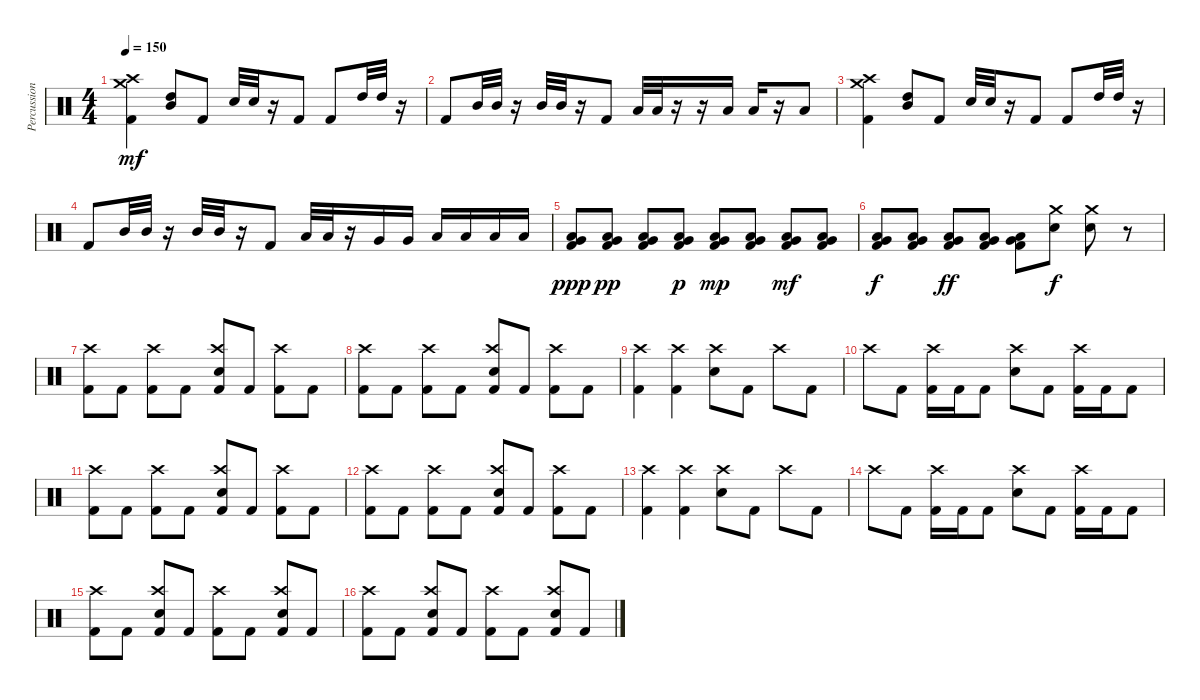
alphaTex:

\track ("Percussion" "Percussion") {instrument percussion}
\staff {score}
\articulation defaults
\ts (4 4)
\tempo 150
\clef neutral
\ks c
("Kick (hit) 2" "Crash high (hit)" "Crash medium (hit)").4{dy mf} ("High Tom (hit)" "Mid Tom (hit)").8 "Kick (hit) 2".8 "Snare (hit) 2".32 "Snare (hit) 2".32 r.16 "Kick (hit) 2".8 "Kick (hit) 2".8 "High Tom (hit)".32 "High Tom (hit)".32 r.16 |
"Kick (hit) 2".8 "Mid Tom (hit)".32 "Mid Tom (hit)".32 r.16 "Mid Tom (hit)".32 "Mid Tom (hit)".32 r.16 "Kick (hit) 2".8 "Low Tom (hit)".32 "Low Tom (hit)".32 r.16 r.16 "Low Floor Tom (hit)".16 "Low Floor Tom (hit)".16 r.16 "Low Floor Tom (hit)".8 |
("Kick (hit) 2" "Crash high (hit)" "Crash medium (hit)").4 ("High Tom (hit)" "Mid Tom (hit)").8 "Kick (hit) 2".8 "Snare (hit) 2".32 "Snare (hit) 2".32 r.16 "Kick (hit) 2".8 "Kick (hit) 2".8 "High Tom (hit)".32 "High Tom (hit)".32 r.16 |
"Kick (hit) 2".8 "Mid Tom (hit)".32 "Mid Tom (hit)".32 r.16 "Mid Tom (hit)".32 "Mid Tom (hit)".32 r.16 "Kick (hit) 2".8 "Low Tom (hit)".32 "Low Tom (hit)".32 r.16 "Very Low Tom (hit)".16 "Very Low Tom (hit)".16 "Low Floor Tom (hit)".16 "Low Floor Tom (hit)".16 "Low Floor Tom (hit)".16 "Low Floor Tom (hit)".16 |
("Low Floor Tom (hit)" "Very Low Tom (hit)" "Kick (hit) 2").8{dy ppp} ("Low Floor Tom (hit)" "Very Low Tom (hit)" "Kick (hit) 2").8{dy pp} ("Low Floor Tom (hit)" "Very Low Tom (hit)" "Kick (hit) 2").8 ("Low Floor Tom (hit)" "Very Low Tom (hit)" "Kick (hit) 2").8{dy p} ("Low Floor Tom (hit)" "Very Low Tom (hit)" "Kick (hit) 2").8{dy mp} ("Low Floor Tom (hit)" "Very Low Tom (hit)" "Kick (hit) 2").8 ("Low Floor Tom (hit)" "Very Low Tom (hit)" "Kick (hit) 2").8{dy mf} ("Low Floor Tom (hit)" "Very Low Tom (hit)" "Kick (hit) 2").8 |
("Low Floor Tom (hit)" "Very Low Tom (hit)" "Kick (hit) 2").8{dy f} ("Low Floor Tom (hit)" "Very Low Tom (hit)" "Kick (hit) 2").8 ("Low Floor Tom (hit)" "Very Low Tom (hit)" "Kick (hit) 2").8{dy ff} ("Kick (hit) 2" "Low Floor Tom (hit)" "Very Low Tom (hit)").8 ("Kick (hit) 2" "Low Floor Tom (hit)" "Very Low Tom (hit)").8 ("Snare (hit) 2" "Crash medium (hit)").8{dy f} ("Snare (hit) 2" "Crash medium (hit)").8 r.8 |
("Kick (hit) 2" "Crash high (hit)").8 "Kick (hit) 2".8 ("Kick (hit) 2" "Crash high (hit)").8 "Kick (hit) 2".8 ("Kick (hit) 2" "Crash high (hit)" "Snare (hit) 2").8 "Kick (hit) 2".8 ("Kick (hit) 2" "Crash high (hit)").8 "Kick (hit) 2".8 |
("Kick (hit) 2" "Crash high (hit)").8 "Kick (hit) 2".8 ("Kick (hit) 2" "Crash high (hit)").8 "Kick (hit) 2".8 ("Kick (hit) 2" "Crash high (hit)" "Snare (hit) 2").8 "Kick (hit) 2".8 ("Kick (hit) 2" "Crash high (hit)").8 "Kick (hit) 2".8 |
("Crash high (hit)" "Kick (hit) 2").4 ("Kick (hit) 2" "Crash high (hit)").4 ("Snare (hit) 2" "Crash high (hit)").8 "Kick (hit) 2".8 "Crash high (hit)".8 "Kick (hit) 2".8 |
"Crash high (hit)".8 "Kick (hit) 2".8 ("Kick (hit) 2" "Crash high (hit)").16 "Kick (hit) 2".16 "Kick (hit) 2".8 ("Snare (hit) 2" "Crash high (hit)").8 "Kick (hit) 2".8 ("Kick (hit) 2" "Crash high (hit)").16 "Kick (hit) 2".16 "Kick (hit) 2".8 |
("Kick (hit) 2" "Crash high (hit)").8 "Kick (hit) 2".8 ("Kick (hit) 2" "Crash high (hit)").8 "Kick (hit) 2".8 ("Kick (hit) 2" "Crash high (hit)" "Snare (hit) 2").8 "Kick (hit) 2".8 ("Kick (hit) 2" "Crash high (hit)").8 "Kick (hit) 2".8 |
("Kick (hit) 2" "Crash high (hit)").8 "Kick (hit) 2".8 ("Kick (hit) 2" "Crash high (hit)").8 "Kick (hit) 2".8 ("Kick (hit) 2" "Crash high (hit)" "Snare (hit) 2").8 "Kick (hit) 2".8 ("Kick (hit) 2" "Crash high (hit)").8 "Kick (hit) 2".8 |
("Crash high (hit)" "Kick (hit) 2").4 ("Kick (hit) 2" "Crash high (hit)").4 ("Snare (hit) 2" "Crash high (hit)").8 "Kick (hit) 2".8 "Crash high (hit)".8 "Kick (hit) 2".8 |
"Crash high (hit)".8 "Kick (hit) 2".8 ("Kick (hit) 2" "Crash high (hit)").16 "Kick (hit) 2".16 "Kick (hit) 2".8 ("Snare (hit) 2" "Crash high (hit)").8 "Kick (hit) 2".8 ("Kick (hit) 2" "Crash high (hit)").16 "Kick (hit) 2".16 "Kick (hit) 2".8 |
("Kick (hit) 2" "Crash high (hit)").8 "Kick (hit) 2".8 ("Kick (hit) 2" "Crash high (hit)" "Snare (hit) 2").8 "Kick (hit) 2".8 ("Kick (hit) 2" "Crash high (hit)").8 "Kick (hit) 2".8 ("Kick (hit) 2" "Crash high (hit)" "Snare (hit) 2").8 "Kick (hit) 2".8 |
("Kick (hit) 2" "Crash high (hit)").8 "Kick (hit) 2".8 ("Kick (hit) 2" "Crash high (hit)" "Snare (hit) 2").8 "Kick (hit) 2".8 ("Kick (hit) 2" "Crash high (hit)").8 "Kick (hit) 2".8 ("Kick (hit) 2" "Crash high (hit)" "Snare (hit) 2").8 "Kick (hit) 2".8
